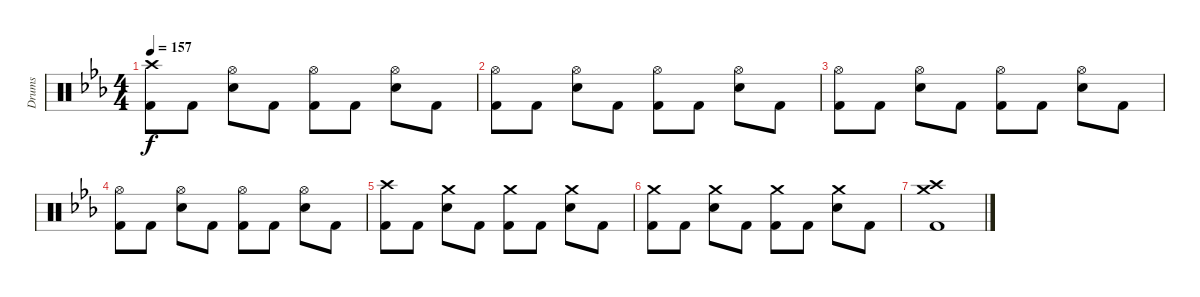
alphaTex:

\track ("Drums" "Drums") {instrument percussion}
\staff {score}
\articulation defaults
\ts (4 4)
\tempo 157
\clef neutral
\ks cminor
("Crash high (hit)" "Kick (hit) 2").8{dy f} "Kick (hit) 2".8 ("Hi-Hat (open)" "Electric Snare (hit)").8 "Kick (hit) 2".8 ("Hi-Hat (open)" "Kick (hit) 2").8 "Kick (hit) 2".8 ("Hi-Hat (open)" "Electric Snare (hit)").8 "Kick (hit) 2".8 |
("Hi-Hat (open)" "Kick (hit) 2").8 "Kick (hit) 2".8 ("Hi-Hat (open)" "Electric Snare (hit)").8 "Kick (hit) 2".8 ("Hi-Hat (open)" "Kick (hit) 2").8 "Kick (hit) 2".8 ("Hi-Hat (open)" "Electric Snare (hit)").8 "Kick (hit) 2".8 |
("Hi-Hat (open)" "Kick (hit) 2").8 "Kick (hit) 2".8 ("Hi-Hat (open)" "Electric Snare (hit)").8 "Kick (hit) 2".8 ("Hi-Hat (open)" "Kick (hit) 2").8 "Kick (hit) 2".8 ("Hi-Hat (open)" "Electric Snare (hit)").8 "Kick (hit) 2".8 |
("Hi-Hat (open)" "Kick (hit) 2").8 "Kick (hit) 2".8 ("Hi-Hat (open)" "Electric Snare (hit)").8 "Kick (hit) 2".8 ("Hi-Hat (open)" "Kick (hit) 2").8 "Kick (hit) 2".8 ("Hi-Hat (open)" "Electric Snare (hit)").8 "Kick (hit) 2".8 |
("Crash high (hit)" "Kick (hit) 2").8 "Kick (hit) 2".8 ("Crash medium (hit)" "Electric Snare (hit)").8 "Kick (hit) 2".8 ("Crash medium (hit)" "Kick (hit) 2").8 "Kick (hit) 2".8 ("Crash medium (hit)" "Electric Snare (hit)").8 "Kick (hit) 2".8 |
("Crash medium (hit)" "Kick (hit) 2").8 "Kick (hit) 2".8 ("Crash medium (hit)" "Electric Snare (hit)").8 "Kick (hit) 2".8 ("Crash medium (hit)" "Kick (hit) 2").8 "Kick (hit) 2".8 ("Crash medium (hit)" "Electric Snare (hit)").8 "Kick (hit) 2".8 |
("Crash medium (hit)" "Crash high (hit)" "Kick (hit) 2").1
